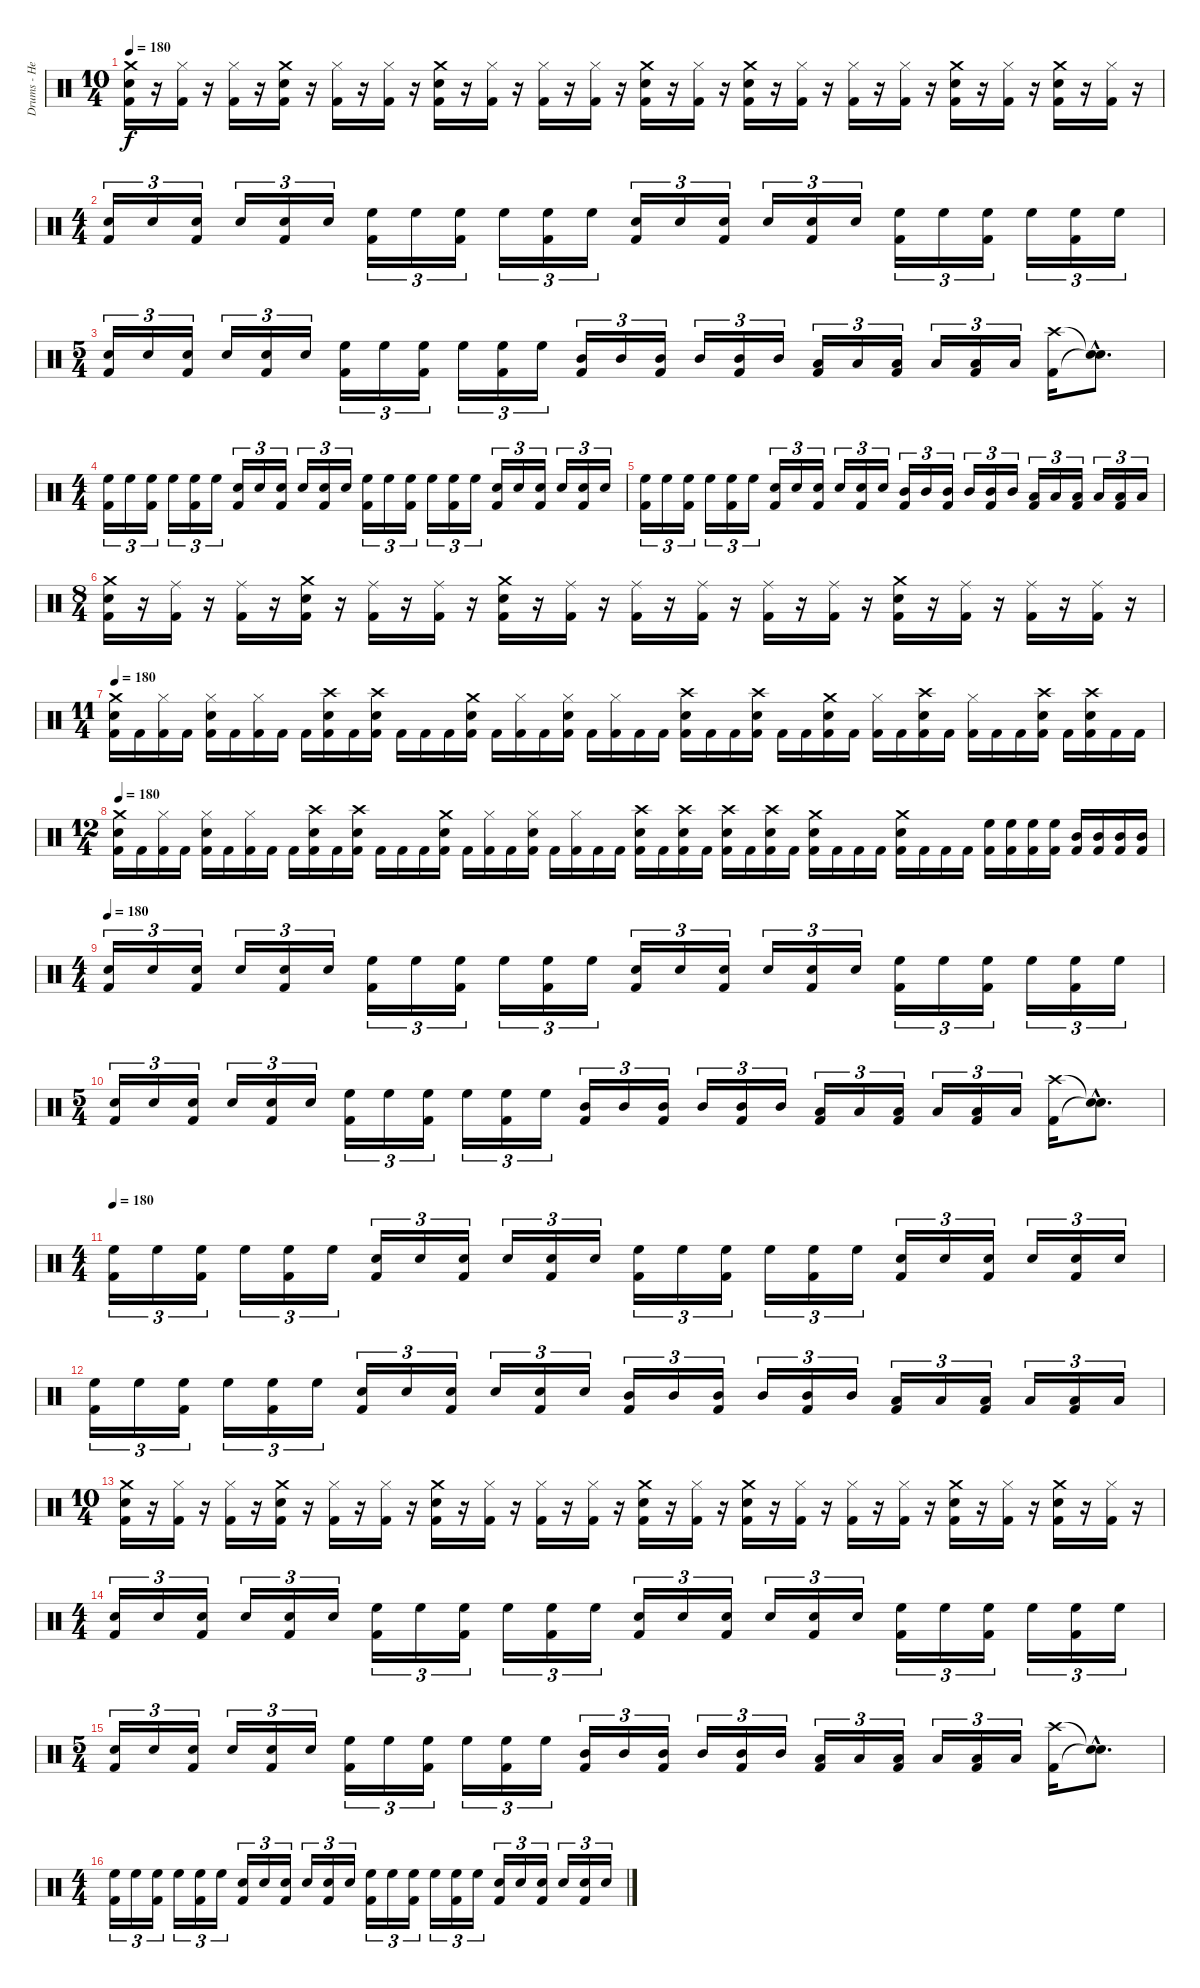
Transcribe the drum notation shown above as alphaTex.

\track ("Drums - Hellhammer" "Drums - He") {instrument percussion}
\staff {score}
\articulation defaults
\ts (10 4)
\tempo 180
\clef neutral
\ks c
("Crash medium (hit)" "Electric Snare (hit)" "Kick (hit) 2").16{dy f} r.16 ("Hi-Hat (closed)" "Kick (hit) 2").16 r.16 ("Hi-Hat (closed)" "Kick (hit) 2").16 r.16 ("Crash medium (hit)" "Electric Snare (hit)" "Kick (hit) 2").16 r.16 ("Hi-Hat (closed)" "Kick (hit) 2").16 r.16 ("Hi-Hat (closed)" "Kick (hit) 2").16 r.16 ("Crash medium (hit)" "Electric Snare (hit)" "Kick (hit) 2").16 r.16 ("Hi-Hat (closed)" "Kick (hit) 2").16 r.16 ("Hi-Hat (closed)" "Kick (hit) 2").16 r.16 ("Hi-Hat (closed)" "Kick (hit) 2").16 r.16 ("Crash medium (hit)" "Electric Snare (hit)" "Kick (hit) 2").16 r.16 ("Hi-Hat (closed)" "Kick (hit) 2").16 r.16 ("Crash medium (hit)" "Electric Snare (hit)" "Kick (hit) 2").16 r.16 ("Hi-Hat (closed)" "Kick (hit) 2").16 r.16 ("Hi-Hat (closed)" "Kick (hit) 2").16 r.16 ("Hi-Hat (closed)" "Kick (hit) 2").16 r.16 ("Crash medium (hit)" "Electric Snare (hit)" "Kick (hit) 2").16 r.16 ("Hi-Hat (closed)" "Kick (hit) 2").16 r.16 ("Crash medium (hit)" "Electric Snare (hit)" "Kick (hit) 2").16 r.16 ("Hi-Hat (closed)" "Kick (hit) 2").16 r.16 |
\ts (4 4)
("Electric Snare (hit)" "Kick (hit) 2").16{tu (3 2)} "Electric Snare (hit)".16{tu (3 2)} ("Electric Snare (hit)" "Kick (hit) 2").16{tu (3 2)} "Electric Snare (hit)".16{tu (3 2)} ("Electric Snare (hit)" "Kick (hit) 2").16{tu (3 2)} "Electric Snare (hit)".16{tu (3 2)} ("High Floor Tom (hit)" "Kick (hit) 2").16{tu (3 2)} "High Floor Tom (hit)".16{tu (3 2)} ("High Floor Tom (hit)" "Kick (hit) 2").16{tu (3 2)} "High Floor Tom (hit)".16{tu (3 2)} ("High Floor Tom (hit)" "Kick (hit) 2").16{tu (3 2)} "High Floor Tom (hit)".16{tu (3 2)} ("Electric Snare (hit)" "Kick (hit) 2").16{tu (3 2)} "Electric Snare (hit)".16{tu (3 2)} ("Electric Snare (hit)" "Kick (hit) 2").16{tu (3 2)} "Electric Snare (hit)".16{tu (3 2)} ("Electric Snare (hit)" "Kick (hit) 2").16{tu (3 2)} "Electric Snare (hit)".16{tu (3 2)} ("High Floor Tom (hit)" "Kick (hit) 2").16{tu (3 2)} "High Floor Tom (hit)".16{tu (3 2)} ("High Floor Tom (hit)" "Kick (hit) 2").16{tu (3 2)} "High Floor Tom (hit)".16{tu (3 2)} ("High Floor Tom (hit)" "Kick (hit) 2").16{tu (3 2)} "High Floor Tom (hit)".16{tu (3 2)} |
\ts (5 4)
("Electric Snare (hit)" "Kick (hit) 2").16{tu (3 2)} "Electric Snare (hit)".16{tu (3 2)} ("Electric Snare (hit)" "Kick (hit) 2").16{tu (3 2)} "Electric Snare (hit)".16{tu (3 2)} ("Electric Snare (hit)" "Kick (hit) 2").16{tu (3 2)} "Electric Snare (hit)".16{tu (3 2)} ("High Floor Tom (hit)" "Kick (hit) 2").16{tu (3 2)} "High Floor Tom (hit)".16{tu (3 2)} ("High Floor Tom (hit)" "Kick (hit) 2").16{tu (3 2)} "High Floor Tom (hit)".16{tu (3 2)} ("High Floor Tom (hit)" "Kick (hit) 2").16{tu (3 2)} "High Floor Tom (hit)".16{tu (3 2)} ("Mid Tom (hit)" "Kick (hit) 2").16{tu (3 2)} "Mid Tom (hit)".16{tu (3 2)} ("Mid Tom (hit)" "Kick (hit) 2").16{tu (3 2)} "Mid Tom (hit)".16{tu (3 2)} ("Mid Tom (hit)" "Kick (hit) 2").16{tu (3 2)} "Mid Tom (hit)".16{tu (3 2)} ("Low Tom (hit)" "Kick (hit) 2").16{tu (3 2)} "Low Tom (hit)".16{tu (3 2)} ("Low Tom (hit)" "Kick (hit) 2").16{tu (3 2)} "Low Tom (hit)".16{tu (3 2)} ("Low Tom (hit)" "Kick (hit) 2").16{tu (3 2)} "Low Tom (hit)".16{tu (3 2)} ("Crash high (hit)" "Kick (hit) 2").16 ("Snare (hit)"{hac t} "Snare (hit)"{hac t}).8{d} |
\ts (4 4)
("High Floor Tom (hit)" "Kick (hit) 2").16{tu (3 2)} "High Floor Tom (hit)".16{tu (3 2)} ("High Floor Tom (hit)" "Kick (hit) 2").16{tu (3 2)} "High Floor Tom (hit)".16{tu (3 2)} ("High Floor Tom (hit)" "Kick (hit) 2").16{tu (3 2)} "High Floor Tom (hit)".16{tu (3 2)} ("Electric Snare (hit)" "Kick (hit) 2").16{tu (3 2)} "Electric Snare (hit)".16{tu (3 2)} ("Electric Snare (hit)" "Kick (hit) 2").16{tu (3 2)} "Electric Snare (hit)".16{tu (3 2)} ("Electric Snare (hit)" "Kick (hit) 2").16{tu (3 2)} "Electric Snare (hit)".16{tu (3 2)} ("High Floor Tom (hit)" "Kick (hit) 2").16{tu (3 2)} "High Floor Tom (hit)".16{tu (3 2)} ("High Floor Tom (hit)" "Kick (hit) 2").16{tu (3 2)} "High Floor Tom (hit)".16{tu (3 2)} ("High Floor Tom (hit)" "Kick (hit) 2").16{tu (3 2)} "High Floor Tom (hit)".16{tu (3 2)} ("Electric Snare (hit)" "Kick (hit) 2").16{tu (3 2)} "Electric Snare (hit)".16{tu (3 2)} ("Electric Snare (hit)" "Kick (hit) 2").16{tu (3 2)} "Electric Snare (hit)".16{tu (3 2)} ("Electric Snare (hit)" "Kick (hit) 2").16{tu (3 2)} "Electric Snare (hit)".16{tu (3 2)} |
("High Floor Tom (hit)" "Kick (hit) 2").16{tu (3 2)} "High Floor Tom (hit)".16{tu (3 2)} ("High Floor Tom (hit)" "Kick (hit) 2").16{tu (3 2)} "High Floor Tom (hit)".16{tu (3 2)} ("High Floor Tom (hit)" "Kick (hit) 2").16{tu (3 2)} "High Floor Tom (hit)".16{tu (3 2)} ("Electric Snare (hit)" "Kick (hit) 2").16{tu (3 2)} "Electric Snare (hit)".16{tu (3 2)} ("Electric Snare (hit)" "Kick (hit) 2").16{tu (3 2)} "Electric Snare (hit)".16{tu (3 2)} ("Electric Snare (hit)" "Kick (hit) 2").16{tu (3 2)} "Electric Snare (hit)".16{tu (3 2)} ("Mid Tom (hit)" "Kick (hit) 2").16{tu (3 2)} "Mid Tom (hit)".16{tu (3 2)} ("Mid Tom (hit)" "Kick (hit) 2").16{tu (3 2)} "Mid Tom (hit)".16{tu (3 2)} ("Mid Tom (hit)" "Kick (hit) 2").16{tu (3 2)} "Mid Tom (hit)".16{tu (3 2)} ("Low Tom (hit)" "Kick (hit) 2").16{tu (3 2)} "Low Tom (hit)".16{tu (3 2)} ("Low Tom (hit)" "Kick (hit) 2").16{tu (3 2)} "Low Tom (hit)".16{tu (3 2)} ("Low Tom (hit)" "Kick (hit) 2").16{tu (3 2)} "Low Tom (hit)".16{tu (3 2)} |
\ts (8 4)
("Crash medium (hit)" "Electric Snare (hit)" "Kick (hit) 2").16 r.16 ("Ride (middle)" "Kick (hit) 2").16 r.16 ("Ride (middle)" "Kick (hit) 2").16 r.16 ("Crash medium (hit)" "Electric Snare (hit)" "Kick (hit) 2").16 r.16 ("Ride (middle)" "Kick (hit) 2").16 r.16 ("Ride (middle)" "Kick (hit) 2").16 r.16 ("Crash medium (hit)" "Electric Snare (hit)" "Kick (hit) 2").16 r.16 ("Ride (middle)" "Kick (hit) 2").16 r.16 ("Ride (middle)" "Kick (hit) 2").16 r.16 ("Ride (middle)" "Kick (hit) 2").16 r.16 ("Ride (middle)" "Kick (hit) 2").16 r.16 ("Ride (middle)" "Kick (hit) 2").16 r.16 ("Crash medium (hit)" "Electric Snare (hit)" "Kick (hit) 2").16 r.16 ("Ride (middle)" "Kick (hit) 2").16 r.16 ("Ride (middle)" "Kick (hit) 2").16 r.16 ("Ride (middle)" "Kick (hit) 2").16 r.16 |
\ts (11 4)
\tempo 180
("Crash medium (hit)" "Electric Snare (hit)" "Kick (hit) 2").16 "Kick (hit) 2".16 ("Hi-Hat (closed)" "Kick (hit) 2").16 "Kick (hit) 2".16 ("Hi-Hat (closed)" "Electric Snare (hit)" "Kick (hit) 2").16 "Kick (hit) 2".16 ("Hi-Hat (closed)" "Kick (hit) 2").16 "Kick (hit) 2".16 "Kick (hit) 2".16 ("Crash high (hit)" "Electric Snare (hit)" "Kick (hit) 2").16 "Kick (hit) 2".16 ("Crash high (hit)" "Electric Snare (hit)" "Kick (hit) 2").16 "Kick (hit) 2".16 "Kick (hit) 2".16 "Kick (hit) 2".16 ("Crash medium (hit)" "Electric Snare (hit)" "Kick (hit) 2").16 "Kick (hit) 2".16 ("Hi-Hat (closed)" "Kick (hit) 2").16 "Kick (hit) 2".16 ("Hi-Hat (closed)" "Electric Snare (hit)" "Kick (hit) 2").16 "Kick (hit) 2".16 ("Hi-Hat (closed)" "Kick (hit) 2").16 "Kick (hit) 2".16 "Kick (hit) 2".16 ("Crash high (hit)" "Electric Snare (hit)" "Kick (hit) 2").16 "Kick (hit) 2".16 "Kick (hit) 2".16 ("Crash high (hit)" "Electric Snare (hit)" "Kick (hit) 2").16 "Kick (hit) 2".16 "Kick (hit) 2".16 ("Crash medium (hit)" "Electric Snare (hit)" "Kick (hit) 2").16 "Kick (hit) 2".16 ("Hi-Hat (closed)" "Kick (hit) 2").16 "Kick (hit) 2".16 ("Crash high (hit)" "Electric Snare (hit)" "Kick (hit) 2").16 "Kick (hit) 2".16 ("Hi-Hat (closed)" "Kick (hit) 2").16 "Kick (hit) 2".16 "Kick (hit) 2".16 ("Crash high (hit)" "Electric Snare (hit)" "Kick (hit) 2").16 "Kick (hit) 2".16 ("Crash high (hit)" "Electric Snare (hit)" "Kick (hit) 2").16 "Kick (hit) 2".16 "Kick (hit) 2".16 |
\ts (12 4)
\tempo 180
("Crash medium (hit)" "Electric Snare (hit)" "Kick (hit) 2").16 "Kick (hit) 2".16 ("Hi-Hat (closed)" "Kick (hit) 2").16 "Kick (hit) 2".16 ("Hi-Hat (closed)" "Electric Snare (hit)" "Kick (hit) 2").16 "Kick (hit) 2".16 ("Hi-Hat (closed)" "Kick (hit) 2").16 "Kick (hit) 2".16 "Kick (hit) 2".16 ("Crash high (hit)" "Electric Snare (hit)" "Kick (hit) 2").16 "Kick (hit) 2".16 ("Crash high (hit)" "Electric Snare (hit)" "Kick (hit) 2").16 "Kick (hit) 2".16 "Kick (hit) 2".16 "Kick (hit) 2".16 ("Crash medium (hit)" "Electric Snare (hit)" "Kick (hit) 2").16 "Kick (hit) 2".16 ("Hi-Hat (closed)" "Kick (hit) 2").16 "Kick (hit) 2".16 ("Hi-Hat (closed)" "Electric Snare (hit)" "Kick (hit) 2").16 "Kick (hit) 2".16 ("Hi-Hat (closed)" "Kick (hit) 2").16 "Kick (hit) 2".16 "Kick (hit) 2".16 ("Crash high (hit)" "Electric Snare (hit)" "Kick (hit) 2").16 "Kick (hit) 2".16 ("Crash high (hit)" "Electric Snare (hit)" "Kick (hit) 2").16 "Kick (hit) 2".16 ("Crash high (hit)" "Electric Snare (hit)" "Kick (hit) 2").16 "Kick (hit) 2".16 ("Crash high (hit)" "Electric Snare (hit)" "Kick (hit) 2").16 "Kick (hit) 2".16 ("Crash medium (hit)" "Electric Snare (hit)" "Kick (hit) 2").16 "Kick (hit) 2".16 "Kick (hit) 2".16 "Kick (hit) 2".16 ("Crash medium (hit)" "Electric Snare (hit)" "Kick (hit) 2").16 "Kick (hit) 2".16 "Kick (hit) 2".16 "Kick (hit) 2".16 ("High Floor Tom (hit)" "Kick (hit) 2").16 ("High Floor Tom (hit)" "Kick (hit) 2").16 ("High Floor Tom (hit)" "Kick (hit) 2").16 ("High Floor Tom (hit)" "Kick (hit) 2").16 ("Mid Tom (hit)" "Kick (hit) 2").16 ("Mid Tom (hit)" "Kick (hit) 2").16 ("Mid Tom (hit)" "Kick (hit) 2").16 ("Mid Tom (hit)" "Kick (hit) 2").16 |
\ts (4 4)
\tempo 180
("Electric Snare (hit)" "Kick (hit) 2").16{tu (3 2)} "Electric Snare (hit)".16{tu (3 2)} ("Electric Snare (hit)" "Kick (hit) 2").16{tu (3 2)} "Electric Snare (hit)".16{tu (3 2)} ("Electric Snare (hit)" "Kick (hit) 2").16{tu (3 2)} "Electric Snare (hit)".16{tu (3 2)} ("High Floor Tom (hit)" "Kick (hit) 2").16{tu (3 2)} "High Floor Tom (hit)".16{tu (3 2)} ("High Floor Tom (hit)" "Kick (hit) 2").16{tu (3 2)} "High Floor Tom (hit)".16{tu (3 2)} ("High Floor Tom (hit)" "Kick (hit) 2").16{tu (3 2)} "High Floor Tom (hit)".16{tu (3 2)} ("Electric Snare (hit)" "Kick (hit) 2").16{tu (3 2)} "Electric Snare (hit)".16{tu (3 2)} ("Electric Snare (hit)" "Kick (hit) 2").16{tu (3 2)} "Electric Snare (hit)".16{tu (3 2)} ("Electric Snare (hit)" "Kick (hit) 2").16{tu (3 2)} "Electric Snare (hit)".16{tu (3 2)} ("High Floor Tom (hit)" "Kick (hit) 2").16{tu (3 2)} "High Floor Tom (hit)".16{tu (3 2)} ("High Floor Tom (hit)" "Kick (hit) 2").16{tu (3 2)} "High Floor Tom (hit)".16{tu (3 2)} ("High Floor Tom (hit)" "Kick (hit) 2").16{tu (3 2)} "High Floor Tom (hit)".16{tu (3 2)} |
\ts (5 4)
("Electric Snare (hit)" "Kick (hit) 2").16{tu (3 2)} "Electric Snare (hit)".16{tu (3 2)} ("Electric Snare (hit)" "Kick (hit) 2").16{tu (3 2)} "Electric Snare (hit)".16{tu (3 2)} ("Electric Snare (hit)" "Kick (hit) 2").16{tu (3 2)} "Electric Snare (hit)".16{tu (3 2)} ("High Floor Tom (hit)" "Kick (hit) 2").16{tu (3 2)} "High Floor Tom (hit)".16{tu (3 2)} ("High Floor Tom (hit)" "Kick (hit) 2").16{tu (3 2)} "High Floor Tom (hit)".16{tu (3 2)} ("High Floor Tom (hit)" "Kick (hit) 2").16{tu (3 2)} "High Floor Tom (hit)".16{tu (3 2)} ("Mid Tom (hit)" "Kick (hit) 2").16{tu (3 2)} "Mid Tom (hit)".16{tu (3 2)} ("Mid Tom (hit)" "Kick (hit) 2").16{tu (3 2)} "Mid Tom (hit)".16{tu (3 2)} ("Mid Tom (hit)" "Kick (hit) 2").16{tu (3 2)} "Mid Tom (hit)".16{tu (3 2)} ("Low Tom (hit)" "Kick (hit) 2").16{tu (3 2)} "Low Tom (hit)".16{tu (3 2)} ("Low Tom (hit)" "Kick (hit) 2").16{tu (3 2)} "Low Tom (hit)".16{tu (3 2)} ("Low Tom (hit)" "Kick (hit) 2").16{tu (3 2)} "Low Tom (hit)".16{tu (3 2)} ("Crash high (hit)" "Kick (hit) 2").16 ("Snare (hit)"{hac t} "Snare (hit)"{hac t}).8{d} |
\ts (4 4)
\tempo 180
("High Floor Tom (hit)" "Kick (hit) 2").16{tu (3 2)} "High Floor Tom (hit)".16{tu (3 2)} ("High Floor Tom (hit)" "Kick (hit) 2").16{tu (3 2)} "High Floor Tom (hit)".16{tu (3 2)} ("High Floor Tom (hit)" "Kick (hit) 2").16{tu (3 2)} "High Floor Tom (hit)".16{tu (3 2)} ("Electric Snare (hit)" "Kick (hit) 2").16{tu (3 2)} "Electric Snare (hit)".16{tu (3 2)} ("Electric Snare (hit)" "Kick (hit) 2").16{tu (3 2)} "Electric Snare (hit)".16{tu (3 2)} ("Electric Snare (hit)" "Kick (hit) 2").16{tu (3 2)} "Electric Snare (hit)".16{tu (3 2)} ("High Floor Tom (hit)" "Kick (hit) 2").16{tu (3 2)} "High Floor Tom (hit)".16{tu (3 2)} ("High Floor Tom (hit)" "Kick (hit) 2").16{tu (3 2)} "High Floor Tom (hit)".16{tu (3 2)} ("High Floor Tom (hit)" "Kick (hit) 2").16{tu (3 2)} "High Floor Tom (hit)".16{tu (3 2)} ("Electric Snare (hit)" "Kick (hit) 2").16{tu (3 2)} "Electric Snare (hit)".16{tu (3 2)} ("Electric Snare (hit)" "Kick (hit) 2").16{tu (3 2)} "Electric Snare (hit)".16{tu (3 2)} ("Electric Snare (hit)" "Kick (hit) 2").16{tu (3 2)} "Electric Snare (hit)".16{tu (3 2)} |
("High Floor Tom (hit)" "Kick (hit) 2").16{tu (3 2)} "High Floor Tom (hit)".16{tu (3 2)} ("High Floor Tom (hit)" "Kick (hit) 2").16{tu (3 2)} "High Floor Tom (hit)".16{tu (3 2)} ("High Floor Tom (hit)" "Kick (hit) 2").16{tu (3 2)} "High Floor Tom (hit)".16{tu (3 2)} ("Electric Snare (hit)" "Kick (hit) 2").16{tu (3 2)} "Electric Snare (hit)".16{tu (3 2)} ("Electric Snare (hit)" "Kick (hit) 2").16{tu (3 2)} "Electric Snare (hit)".16{tu (3 2)} ("Electric Snare (hit)" "Kick (hit) 2").16{tu (3 2)} "Electric Snare (hit)".16{tu (3 2)} ("Mid Tom (hit)" "Kick (hit) 2").16{tu (3 2)} "Mid Tom (hit)".16{tu (3 2)} ("Mid Tom (hit)" "Kick (hit) 2").16{tu (3 2)} "Mid Tom (hit)".16{tu (3 2)} ("Mid Tom (hit)" "Kick (hit) 2").16{tu (3 2)} "Mid Tom (hit)".16{tu (3 2)} ("Low Tom (hit)" "Kick (hit) 2").16{tu (3 2)} "Low Tom (hit)".16{tu (3 2)} ("Low Tom (hit)" "Kick (hit) 2").16{tu (3 2)} "Low Tom (hit)".16{tu (3 2)} ("Low Tom (hit)" "Kick (hit) 2").16{tu (3 2)} "Low Tom (hit)".16{tu (3 2)} |
\ts (10 4)
("Crash medium (hit)" "Electric Snare (hit)" "Kick (hit) 2").16 r.16 ("Hi-Hat (closed)" "Kick (hit) 2").16 r.16 ("Hi-Hat (closed)" "Kick (hit) 2").16 r.16 ("Crash medium (hit)" "Electric Snare (hit)" "Kick (hit) 2").16 r.16 ("Hi-Hat (closed)" "Kick (hit) 2").16 r.16 ("Hi-Hat (closed)" "Kick (hit) 2").16 r.16 ("Crash medium (hit)" "Electric Snare (hit)" "Kick (hit) 2").16 r.16 ("Hi-Hat (closed)" "Kick (hit) 2").16 r.16 ("Hi-Hat (closed)" "Kick (hit) 2").16 r.16 ("Hi-Hat (closed)" "Kick (hit) 2").16 r.16 ("Crash medium (hit)" "Electric Snare (hit)" "Kick (hit) 2").16 r.16 ("Hi-Hat (closed)" "Kick (hit) 2").16 r.16 ("Crash medium (hit)" "Electric Snare (hit)" "Kick (hit) 2").16 r.16 ("Hi-Hat (closed)" "Kick (hit) 2").16 r.16 ("Hi-Hat (closed)" "Kick (hit) 2").16 r.16 ("Hi-Hat (closed)" "Kick (hit) 2").16 r.16 ("Crash medium (hit)" "Electric Snare (hit)" "Kick (hit) 2").16 r.16 ("Hi-Hat (closed)" "Kick (hit) 2").16 r.16 ("Crash medium (hit)" "Electric Snare (hit)" "Kick (hit) 2").16 r.16 ("Hi-Hat (closed)" "Kick (hit) 2").16 r.16 |
\ts (4 4)
("Electric Snare (hit)" "Kick (hit) 2").16{tu (3 2)} "Electric Snare (hit)".16{tu (3 2)} ("Electric Snare (hit)" "Kick (hit) 2").16{tu (3 2)} "Electric Snare (hit)".16{tu (3 2)} ("Electric Snare (hit)" "Kick (hit) 2").16{tu (3 2)} "Electric Snare (hit)".16{tu (3 2)} ("High Floor Tom (hit)" "Kick (hit) 2").16{tu (3 2)} "High Floor Tom (hit)".16{tu (3 2)} ("High Floor Tom (hit)" "Kick (hit) 2").16{tu (3 2)} "High Floor Tom (hit)".16{tu (3 2)} ("High Floor Tom (hit)" "Kick (hit) 2").16{tu (3 2)} "High Floor Tom (hit)".16{tu (3 2)} ("Electric Snare (hit)" "Kick (hit) 2").16{tu (3 2)} "Electric Snare (hit)".16{tu (3 2)} ("Electric Snare (hit)" "Kick (hit) 2").16{tu (3 2)} "Electric Snare (hit)".16{tu (3 2)} ("Electric Snare (hit)" "Kick (hit) 2").16{tu (3 2)} "Electric Snare (hit)".16{tu (3 2)} ("High Floor Tom (hit)" "Kick (hit) 2").16{tu (3 2)} "High Floor Tom (hit)".16{tu (3 2)} ("High Floor Tom (hit)" "Kick (hit) 2").16{tu (3 2)} "High Floor Tom (hit)".16{tu (3 2)} ("High Floor Tom (hit)" "Kick (hit) 2").16{tu (3 2)} "High Floor Tom (hit)".16{tu (3 2)} |
\ts (5 4)
("Electric Snare (hit)" "Kick (hit) 2").16{tu (3 2)} "Electric Snare (hit)".16{tu (3 2)} ("Electric Snare (hit)" "Kick (hit) 2").16{tu (3 2)} "Electric Snare (hit)".16{tu (3 2)} ("Electric Snare (hit)" "Kick (hit) 2").16{tu (3 2)} "Electric Snare (hit)".16{tu (3 2)} ("High Floor Tom (hit)" "Kick (hit) 2").16{tu (3 2)} "High Floor Tom (hit)".16{tu (3 2)} ("High Floor Tom (hit)" "Kick (hit) 2").16{tu (3 2)} "High Floor Tom (hit)".16{tu (3 2)} ("High Floor Tom (hit)" "Kick (hit) 2").16{tu (3 2)} "High Floor Tom (hit)".16{tu (3 2)} ("Mid Tom (hit)" "Kick (hit) 2").16{tu (3 2)} "Mid Tom (hit)".16{tu (3 2)} ("Mid Tom (hit)" "Kick (hit) 2").16{tu (3 2)} "Mid Tom (hit)".16{tu (3 2)} ("Mid Tom (hit)" "Kick (hit) 2").16{tu (3 2)} "Mid Tom (hit)".16{tu (3 2)} ("Low Tom (hit)" "Kick (hit) 2").16{tu (3 2)} "Low Tom (hit)".16{tu (3 2)} ("Low Tom (hit)" "Kick (hit) 2").16{tu (3 2)} "Low Tom (hit)".16{tu (3 2)} ("Low Tom (hit)" "Kick (hit) 2").16{tu (3 2)} "Low Tom (hit)".16{tu (3 2)} ("Crash high (hit)" "Kick (hit) 2").16 ("Snare (hit)"{hac t} "Snare (hit)"{hac t}).8{d} |
\ts (4 4)
("High Floor Tom (hit)" "Kick (hit) 2").16{tu (3 2)} "High Floor Tom (hit)".16{tu (3 2)} ("High Floor Tom (hit)" "Kick (hit) 2").16{tu (3 2)} "High Floor Tom (hit)".16{tu (3 2)} ("High Floor Tom (hit)" "Kick (hit) 2").16{tu (3 2)} "High Floor Tom (hit)".16{tu (3 2)} ("Electric Snare (hit)" "Kick (hit) 2").16{tu (3 2)} "Electric Snare (hit)".16{tu (3 2)} ("Electric Snare (hit)" "Kick (hit) 2").16{tu (3 2)} "Electric Snare (hit)".16{tu (3 2)} ("Electric Snare (hit)" "Kick (hit) 2").16{tu (3 2)} "Electric Snare (hit)".16{tu (3 2)} ("High Floor Tom (hit)" "Kick (hit) 2").16{tu (3 2)} "High Floor Tom (hit)".16{tu (3 2)} ("High Floor Tom (hit)" "Kick (hit) 2").16{tu (3 2)} "High Floor Tom (hit)".16{tu (3 2)} ("High Floor Tom (hit)" "Kick (hit) 2").16{tu (3 2)} "High Floor Tom (hit)".16{tu (3 2)} ("Electric Snare (hit)" "Kick (hit) 2").16{tu (3 2)} "Electric Snare (hit)".16{tu (3 2)} ("Electric Snare (hit)" "Kick (hit) 2").16{tu (3 2)} "Electric Snare (hit)".16{tu (3 2)} ("Electric Snare (hit)" "Kick (hit) 2").16{tu (3 2)} "Electric Snare (hit)".16{tu (3 2)}
